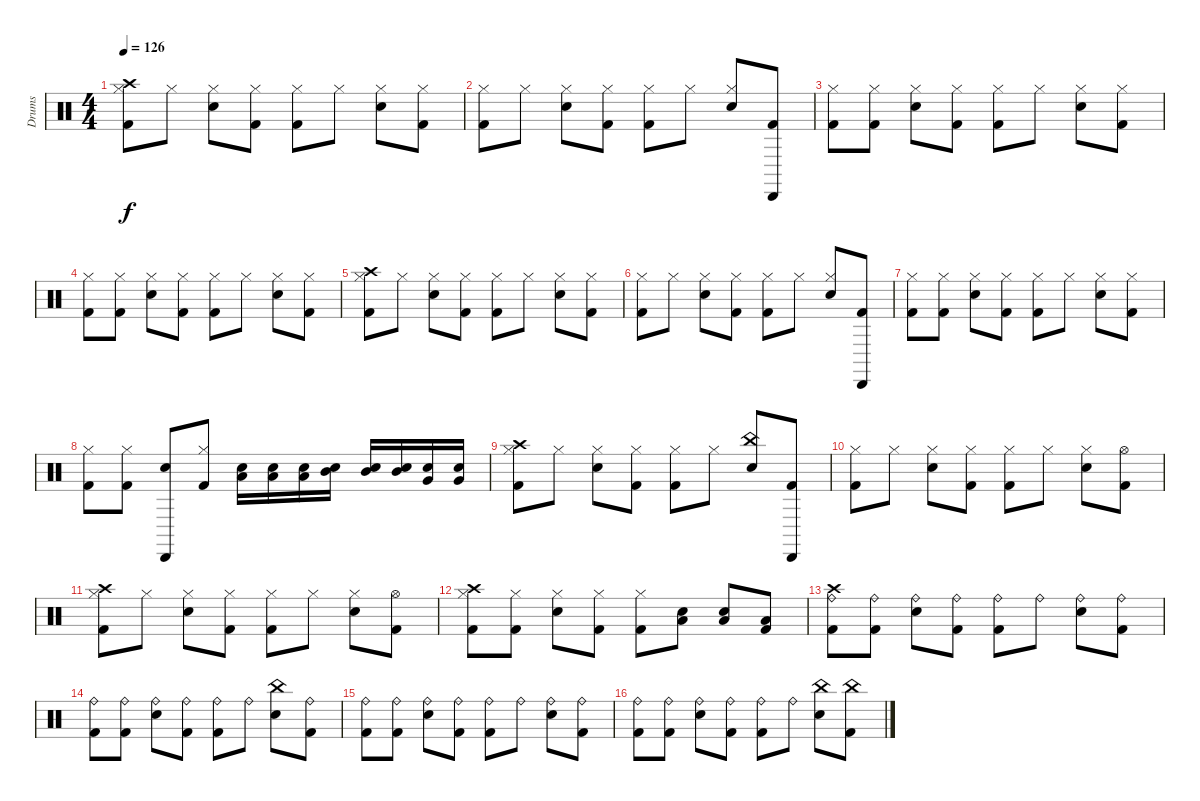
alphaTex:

\track ("Drums" "Drums") {instrument percussion}
\staff {score}
\articulation defaults
\ts (4 4)
\tempo 126
\clef neutral
\ks c
("Crash high (hit)" "Hi-Hat (closed)" "Kick (hit) 2").8{dy f} "Hi-Hat (closed)".8 ("Hi-Hat (closed)" "Snare (hit) 2").8 ("Hi-Hat (closed)" "Kick (hit) 2").8 ("Hi-Hat (closed)" "Kick (hit) 2").8 "Hi-Hat (closed)".8 ("Hi-Hat (closed)" "Snare (hit) 2").8 ("Hi-Hat (closed)" "Kick (hit) 2").8 |
("Hi-Hat (closed)" "Kick (hit) 2").8 "Hi-Hat (closed)".8 ("Hi-Hat (closed)" "Snare (hit) 2").8 ("Hi-Hat (closed)" "Kick (hit) 2").8 ("Hi-Hat (closed)" "Kick (hit) 2").8 "Hi-Hat (closed)".8 ("Hi-Hat (closed)" "Snare (hit) 2").8 ("Cabasa (hit)" "Kick (hit) 2").8 |
("Hi-Hat (closed)" "Kick (hit) 2").8 ("Hi-Hat (closed)" "Kick (hit) 2").8 ("Hi-Hat (closed)" "Snare (hit) 2").8 ("Hi-Hat (closed)" "Kick (hit) 2").8 ("Hi-Hat (closed)" "Kick (hit) 2").8 "Hi-Hat (closed)".8 ("Hi-Hat (closed)" "Snare (hit) 2").8 ("Hi-Hat (closed)" "Kick (hit) 2").8 |
("Hi-Hat (closed)" "Kick (hit) 2").8 ("Hi-Hat (closed)" "Kick (hit) 2").8 ("Hi-Hat (closed)" "Snare (hit) 2").8 ("Hi-Hat (closed)" "Kick (hit) 2").8 ("Hi-Hat (closed)" "Kick (hit) 2").8 "Hi-Hat (closed)".8 ("Hi-Hat (closed)" "Snare (hit) 2").8 ("Hi-Hat (closed)" "Kick (hit) 2").8 |
("Crash high (hit)" "Hi-Hat (closed)" "Kick (hit) 2").8 "Hi-Hat (closed)".8 ("Hi-Hat (closed)" "Snare (hit) 2").8 ("Hi-Hat (closed)" "Kick (hit) 2").8 ("Hi-Hat (closed)" "Kick (hit) 2").8 "Hi-Hat (closed)".8 ("Hi-Hat (closed)" "Snare (hit) 2").8 ("Hi-Hat (closed)" "Kick (hit) 2").8 |
("Hi-Hat (closed)" "Kick (hit) 2").8 "Hi-Hat (closed)".8 ("Hi-Hat (closed)" "Snare (hit) 2").8 ("Hi-Hat (closed)" "Kick (hit) 2").8 ("Hi-Hat (closed)" "Kick (hit) 2").8 "Hi-Hat (closed)".8 ("Hi-Hat (closed)" "Snare (hit) 2").8 ("Cabasa (hit)" "Kick (hit) 2").8 |
("Hi-Hat (closed)" "Kick (hit) 2").8 ("Hi-Hat (closed)" "Kick (hit) 2").8 ("Hi-Hat (closed)" "Snare (hit) 2").8 ("Hi-Hat (closed)" "Kick (hit) 2").8 ("Hi-Hat (closed)" "Kick (hit) 2").8 "Hi-Hat (closed)".8 ("Hi-Hat (closed)" "Snare (hit) 2").8 ("Hi-Hat (closed)" "Kick (hit) 2").8 |
("Hi-Hat (closed)" "Kick (hit) 2").8 ("Hi-Hat (closed)" "Kick (hit) 2").8 ("Cabasa (hit)" "Snare (hit) 2").8 ("Hi-Hat (closed)" "Kick (hit) 2").8 ("Low Tom (hit)" "Snare (hit) 2").16 ("Low Tom (hit)" "Snare (hit) 2").16 ("Low Tom (hit)" "Snare (hit) 2").16 ("Mid Tom (hit)" "Snare (hit) 2").16 ("Mid Tom (hit)" "Snare (hit) 2").16 ("Mid Tom (hit)" "Snare (hit) 2").16 ("Very Low Tom (hit)" "Snare (hit) 2").16 ("Very Low Tom (hit)" "Snare (hit) 2").16 |
("Crash high (hit)" "Hi-Hat (closed)" "Kick (hit) 2").8 "Hi-Hat (closed)".8 ("Hi-Hat (closed)" "Snare (hit) 2").8 ("Hi-Hat (closed)" "Kick (hit) 2").8 ("Hi-Hat (closed)" "Kick (hit) 2").8 "Hi-Hat (closed)".8 ("China (hit)" "Snare (hit) 2").8 ("Cabasa (hit)" "Kick (hit) 2").8 |
("Hi-Hat (closed)" "Kick (hit) 2").8 "Hi-Hat (closed)".8 ("Hi-Hat (closed)" "Snare (hit) 2").8 ("Hi-Hat (closed)" "Kick (hit) 2").8 ("Hi-Hat (closed)" "Kick (hit) 2").8 "Hi-Hat (closed)".8 ("Hi-Hat (closed)" "Snare (hit) 2").8 ("Hi-Hat (open)" "Kick (hit) 2").8 |
("Crash high (hit)" "Hi-Hat (closed)" "Kick (hit) 2").8 "Hi-Hat (closed)".8 ("Hi-Hat (closed)" "Snare (hit) 2").8 ("Hi-Hat (closed)" "Kick (hit) 2").8 ("Hi-Hat (closed)" "Kick (hit) 2").8 "Hi-Hat (closed)".8 ("Hi-Hat (closed)" "Snare (hit) 2").8 ("Hi-Hat (open)" "Kick (hit) 2").8 |
("Crash high (hit)" "Hi-Hat (closed)" "Kick (hit) 2").8 ("Hi-Hat (closed)" "Kick (hit) 2").8 ("Hi-Hat (closed)" "Snare (hit) 2").8 ("Hi-Hat (closed)" "Kick (hit) 2").8 ("Hi-Hat (closed)" "Kick (hit) 2").8 ("Low Tom (hit)" "Snare (hit) 2").8 ("Low Tom (hit)" "Snare (hit) 2").8 ("Low Tom (hit)" "Kick (hit) 2").8 |
("Crash high (hit)" "Ride (bell)" "Kick (hit) 2").8 ("Ride (bell)" "Kick (hit) 2").8 ("Ride (bell)" "Snare (hit) 2").8 ("Ride (bell)" "Kick (hit) 2").8 ("Ride (bell)" "Kick (hit) 2").8 "Ride (bell)".8 ("Ride (bell)" "Snare (hit) 2").8 ("Ride (bell)" "Kick (hit) 2").8 |
("Ride (bell)" "Kick (hit) 2").8 ("Ride (bell)" "Kick (hit) 2").8 ("Ride (bell)" "Snare (hit) 2").8 ("Ride (bell)" "Kick (hit) 2").8 ("Ride (bell)" "Kick (hit) 2").8 "Ride (bell)".8 ("China (hit)" "Snare (hit) 2").8 ("Ride (bell)" "Kick (hit) 2").8 |
("Ride (bell)" "Kick (hit) 2").8 ("Ride (bell)" "Kick (hit) 2").8 ("Ride (bell)" "Snare (hit) 2").8 ("Ride (bell)" "Kick (hit) 2").8 ("Ride (bell)" "Kick (hit) 2").8 "Ride (bell)".8 ("Ride (bell)" "Snare (hit) 2").8 ("Ride (bell)" "Kick (hit) 2").8 |
("Ride (bell)" "Kick (hit) 2").8 ("Ride (bell)" "Kick (hit) 2").8 ("Ride (bell)" "Snare (hit) 2").8 ("Ride (bell)" "Kick (hit) 2").8 ("Ride (bell)" "Kick (hit) 2").8 "Ride (bell)".8 ("China (hit)" "Snare (hit) 2").8 ("China (hit)" "Kick (hit) 2").8
